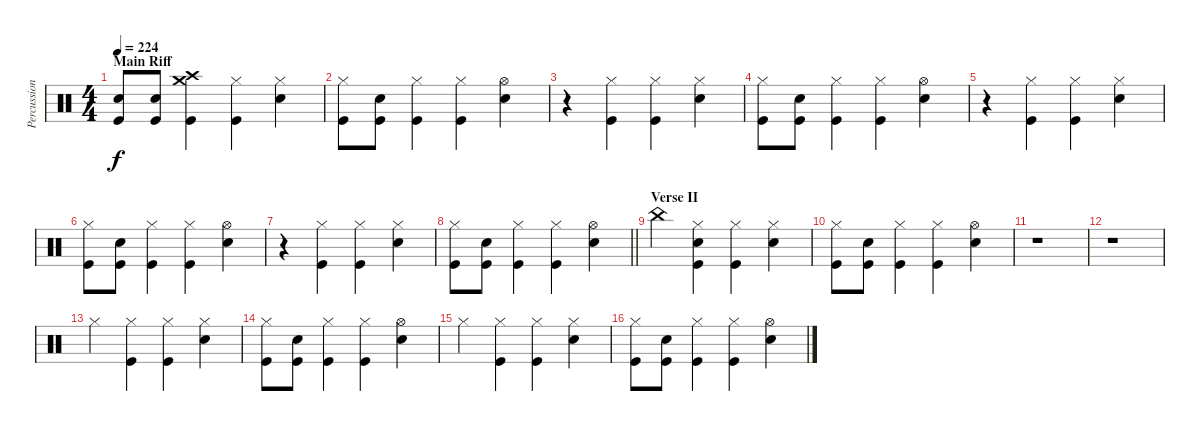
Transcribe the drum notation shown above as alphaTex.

\track ("Percussion" "Percussion") {instrument percussion}
\staff {score}
\articulation defaults
\ts (4 4)
\section ("" "Main Riff")
\tempo 224
\clef neutral
\ks c
("Electric Snare (hit)" "Kick (hit)").8{dy f} ("Electric Snare (hit)" "Kick (hit)").8 ("Crash high (hit)" "Crash medium (hit)" "Kick (hit)").4 ("Hi-Hat (closed)" "Kick (hit)").4 ("Hi-Hat (closed)" "Electric Snare (hit)").4 |
("Hi-Hat (closed)" "Kick (hit)").8 ("Electric Snare (hit)" "Kick (hit)").8 ("Hi-Hat (closed)" "Kick (hit)").4 ("Hi-Hat (closed)" "Kick (hit)").4 ("Hi-Hat (open)" "Electric Snare (hit)").4 |
r.4 ("Hi-Hat (closed)" "Kick (hit)").4 ("Hi-Hat (closed)" "Kick (hit)").4 ("Hi-Hat (closed)" "Electric Snare (hit)").4 |
("Hi-Hat (closed)" "Kick (hit)").8 ("Electric Snare (hit)" "Kick (hit)").8 ("Hi-Hat (closed)" "Kick (hit)").4 ("Hi-Hat (closed)" "Kick (hit)").4 ("Hi-Hat (open)" "Electric Snare (hit)").4 |
r.4 ("Hi-Hat (closed)" "Kick (hit)").4 ("Hi-Hat (closed)" "Kick (hit)").4 ("Hi-Hat (closed)" "Electric Snare (hit)").4 |
("Hi-Hat (closed)" "Kick (hit)").8 ("Electric Snare (hit)" "Kick (hit)").8 ("Hi-Hat (closed)" "Kick (hit)").4 ("Hi-Hat (closed)" "Kick (hit)").4 ("Hi-Hat (open)" "Electric Snare (hit)").4 |
r.4 ("Hi-Hat (closed)" "Kick (hit)").4 ("Hi-Hat (closed)" "Kick (hit)").4 ("Hi-Hat (closed)" "Electric Snare (hit)").4 |
\barLineRight lightlight
("Hi-Hat (closed)" "Kick (hit)").8 ("Electric Snare (hit)" "Kick (hit)").8 ("Hi-Hat (closed)" "Kick (hit)").4 ("Hi-Hat (closed)" "Kick (hit)").4 ("Hi-Hat (open)" "Electric Snare (hit)").4 |
\section ("" "Verse II")
"China (hit)".4 ("Hi-Hat (closed)" "Electric Snare (hit)" "Kick (hit)").4 ("Hi-Hat (closed)" "Kick (hit)").4 ("Hi-Hat (closed)" "Electric Snare (hit)").4 |
("Hi-Hat (closed)" "Kick (hit)").8 ("Electric Snare (hit)" "Kick (hit)").8 ("Hi-Hat (closed)" "Kick (hit)").4 ("Hi-Hat (closed)" "Kick (hit)").4 ("Hi-Hat (open)" "Electric Snare (hit)").4 |
r.1 |
r.1 |
"Hi-Hat (closed)".4 ("Hi-Hat (closed)" "Kick (hit)").4 ("Hi-Hat (closed)" "Kick (hit)").4 ("Hi-Hat (closed)" "Electric Snare (hit)").4 |
("Hi-Hat (closed)" "Kick (hit)").8 ("Electric Snare (hit)" "Kick (hit)").8 ("Hi-Hat (closed)" "Kick (hit)").4 ("Hi-Hat (closed)" "Kick (hit)").4 ("Hi-Hat (open)" "Electric Snare (hit)").4 |
"Hi-Hat (closed)".4 ("Hi-Hat (closed)" "Kick (hit)").4 ("Hi-Hat (closed)" "Kick (hit)").4 ("Hi-Hat (closed)" "Electric Snare (hit)").4 |
("Hi-Hat (closed)" "Kick (hit)").8 ("Electric Snare (hit)" "Kick (hit)").8 ("Hi-Hat (closed)" "Kick (hit)").4 ("Hi-Hat (closed)" "Kick (hit)").4 ("Hi-Hat (open)" "Electric Snare (hit)").4
